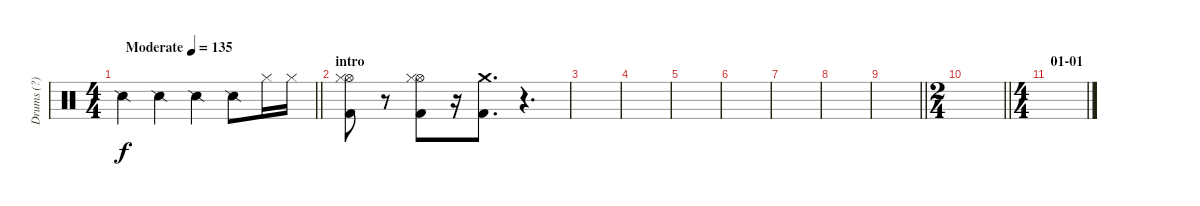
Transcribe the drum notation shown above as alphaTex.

\track ("Drums (?)" "Drums (?)") {instrument percussion}
\staff {score}
\articulation defaults
\ts (4 4)
\tempo (135 "Moderate")
\clef neutral
\barLineRight lightlight
\ks c "Snare (side stick) 2".4{dy f} "Snare (side stick) 2".4 "Snare (side stick) 2".4 "Snare (side stick) 2".8 "Hi-Hat (closed)".16 "Hi-Hat (closed)".16
|
\section ("" "intro")
("Hi-Hat (open)" "Hi-Hat (closed)" "Kick (hit) 2").8 r.8 ("Hi-Hat (open)" "Hi-Hat (closed)" "Kick (hit) 2").8 r.16 ("Crash medium (hit)" "Kick (hit) 2").8{d} r.4{d} |
|
|
|
|
|
|
\barLineRight lightlight
|
\ts (2 4)
\barLineRight lightlight
|
\ts (4 4)
\section ("" "01-01")
